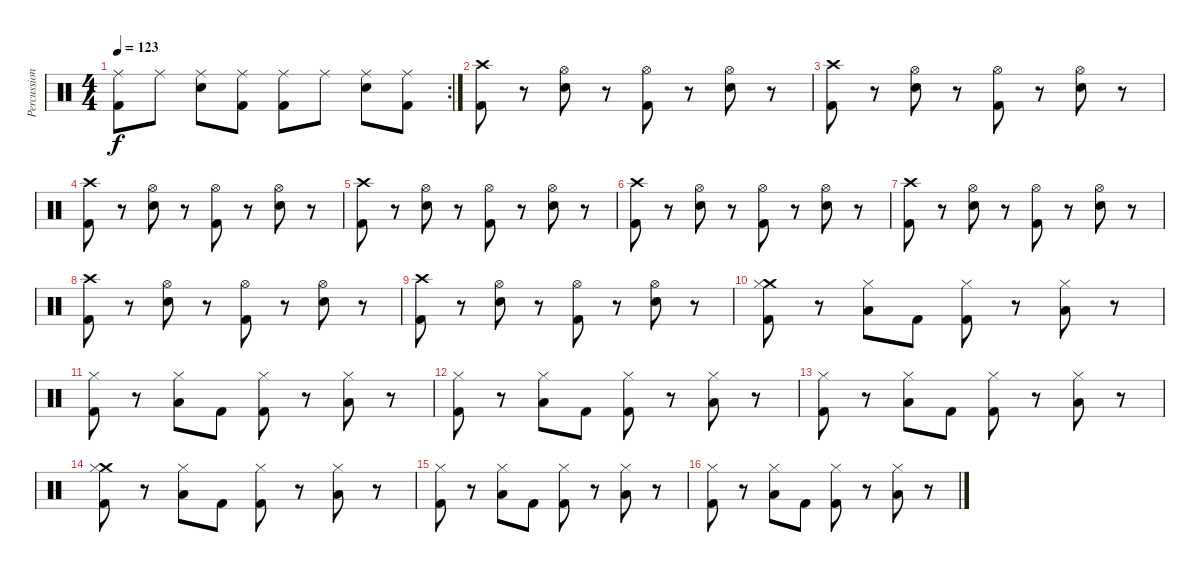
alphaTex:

\track ("Percussion" "Percussion") {instrument percussion}
\staff {score}
\articulation defaults
\rc 2
\ts (4 4)
\tempo 123
\clef neutral
\ks c
("Ride (middle)" "Kick (hit) 2").8{dy f} "Ride (middle)".8 ("Ride (middle)" "Electric Snare (hit)").8 ("Ride (middle)" "Kick (hit) 2").8 ("Ride (middle)" "Kick (hit) 2").8 "Ride (middle)".8 ("Ride (middle)" "Electric Snare (hit)").8 ("Ride (middle)" "Kick (hit) 2").8 |
\section ("" "")
("Crash high (hit)" "Kick (hit) 2").8 r.8 ("Hi-Hat (open)" "Electric Snare (hit)").8 r.8 ("Hi-Hat (open)" "Kick (hit) 2").8 r.8 ("Hi-Hat (open)" "Electric Snare (hit)").8 r.8 |
("Crash high (hit)" "Kick (hit) 2").8 r.8 ("Hi-Hat (open)" "Electric Snare (hit)").8 r.8 ("Hi-Hat (open)" "Kick (hit) 2").8 r.8 ("Hi-Hat (open)" "Electric Snare (hit)").8 r.8 |
("Crash high (hit)" "Kick (hit) 2").8 r.8 ("Hi-Hat (open)" "Electric Snare (hit)").8 r.8 ("Hi-Hat (open)" "Kick (hit) 2").8 r.8 ("Hi-Hat (open)" "Electric Snare (hit)").8 r.8 |
("Crash high (hit)" "Kick (hit) 2").8 r.8 ("Hi-Hat (open)" "Electric Snare (hit)").8 r.8 ("Hi-Hat (open)" "Kick (hit) 2").8 r.8 ("Hi-Hat (open)" "Electric Snare (hit)").8 r.8 |
("Crash high (hit)" "Kick (hit) 2").8 r.8 ("Hi-Hat (open)" "Electric Snare (hit)").8 r.8 ("Hi-Hat (open)" "Kick (hit) 2").8 r.8 ("Hi-Hat (open)" "Electric Snare (hit)").8 r.8 |
("Crash high (hit)" "Kick (hit) 2").8 r.8 ("Hi-Hat (open)" "Electric Snare (hit)").8 r.8 ("Hi-Hat (open)" "Kick (hit) 2").8 r.8 ("Hi-Hat (open)" "Electric Snare (hit)").8 r.8 |
("Crash high (hit)" "Kick (hit) 2").8 r.8 ("Hi-Hat (open)" "Electric Snare (hit)").8 r.8 ("Hi-Hat (open)" "Kick (hit) 2").8 r.8 ("Hi-Hat (open)" "Electric Snare (hit)").8 r.8 |
("Crash high (hit)" "Kick (hit) 2").8 r.8 ("Hi-Hat (open)" "Electric Snare (hit)").8 r.8 ("Hi-Hat (open)" "Kick (hit) 2").8 r.8 ("Hi-Hat (open)" "Electric Snare (hit)").8 r.8 |
\section ("" "")
("Crash medium (hit)" "Hi-Hat (closed)" "Kick (hit) 2").8 r.8 ("Hi-Hat (closed)" "Low Tom (hit)").8 "Kick (hit) 2".8 ("Hi-Hat (closed)" "Kick (hit) 2").8 r.8 ("Hi-Hat (closed)" "Low Tom (hit)").8 r.8 |
("Hi-Hat (closed)" "Kick (hit) 2").8 r.8 ("Hi-Hat (closed)" "Low Tom (hit)").8 "Kick (hit) 2".8 ("Hi-Hat (closed)" "Kick (hit) 2").8 r.8 ("Hi-Hat (closed)" "Low Tom (hit)").8 r.8 |
("Hi-Hat (closed)" "Kick (hit) 2").8 r.8 ("Hi-Hat (closed)" "Low Tom (hit)").8 "Kick (hit) 2".8 ("Hi-Hat (closed)" "Kick (hit) 2").8 r.8 ("Hi-Hat (closed)" "Low Tom (hit)").8 r.8 |
("Hi-Hat (closed)" "Kick (hit) 2").8 r.8 ("Hi-Hat (closed)" "Low Tom (hit)").8 "Kick (hit) 2".8 ("Hi-Hat (closed)" "Kick (hit) 2").8 r.8 ("Hi-Hat (closed)" "Low Tom (hit)").8 r.8 |
("Crash medium (hit)" "Hi-Hat (closed)" "Kick (hit) 2").8 r.8 ("Hi-Hat (closed)" "Low Tom (hit)").8 "Kick (hit) 2".8 ("Hi-Hat (closed)" "Kick (hit) 2").8 r.8 ("Hi-Hat (closed)" "Low Tom (hit)").8 r.8 |
("Hi-Hat (closed)" "Kick (hit) 2").8 r.8 ("Hi-Hat (closed)" "Low Tom (hit)").8 "Kick (hit) 2".8 ("Hi-Hat (closed)" "Kick (hit) 2").8 r.8 ("Hi-Hat (closed)" "Low Tom (hit)").8 r.8 |
("Hi-Hat (closed)" "Kick (hit) 2").8 r.8 ("Hi-Hat (closed)" "Low Tom (hit)").8 "Kick (hit) 2".8 ("Hi-Hat (closed)" "Kick (hit) 2").8 r.8 ("Hi-Hat (closed)" "Low Tom (hit)").8 r.8
